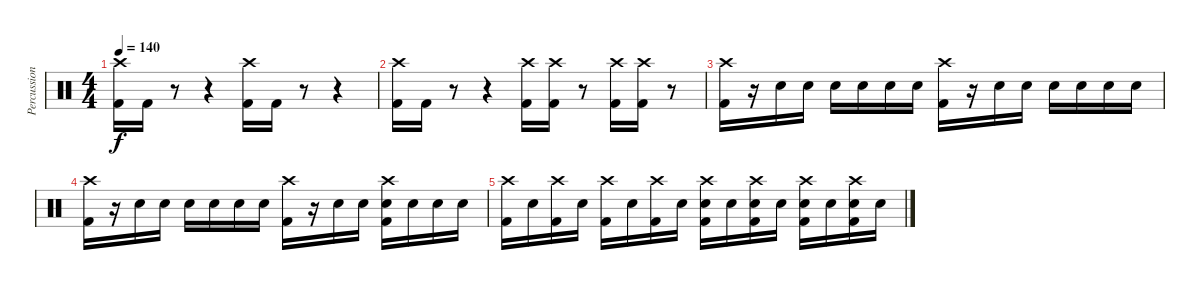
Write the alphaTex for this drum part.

\track ("Percussions" "Percussion") {instrument percussion}
\staff {score}
\articulation defaults
\ts (4 4)
\tempo 140
\clef neutral
\ks c
("Crash high (hit)" "Kick (hit) 2").16{dy f} "Kick (hit) 2".16 r.8 r.4 ("Crash high (hit)" "Kick (hit) 2").16 "Kick (hit) 2".16 r.8 r.4 |
("Crash high (hit)" "Kick (hit) 2").16 "Kick (hit) 2".16 r.8 r.4 ("Crash high (hit)" "Kick (hit) 2").16 ("Crash high (hit)" "Kick (hit) 2").16 r.8 ("Crash high (hit)" "Kick (hit) 2").16 ("Crash high (hit)" "Kick (hit) 2").16 r.8 |
("Crash high (hit)" "Kick (hit) 2").16 r.16 "Electric Snare (hit)".16 "Electric Snare (hit)".16 "Electric Snare (hit)".16 "Electric Snare (hit)".16 "Electric Snare (hit)".16 "Electric Snare (hit)".16 ("Crash high (hit)" "Kick (hit) 2").16 r.16 "Electric Snare (hit)".16 "Electric Snare (hit)".16 "Electric Snare (hit)".16 "Electric Snare (hit)".16 "Electric Snare (hit)".16 "Electric Snare (hit)".16 |
("Crash high (hit)" "Kick (hit) 2").16 r.16 "Electric Snare (hit)".16 "Electric Snare (hit)".16 "Electric Snare (hit)".16 "Electric Snare (hit)".16 "Electric Snare (hit)".16 "Electric Snare (hit)".16 ("Crash high (hit)" "Kick (hit) 2").16 r.16 "Electric Snare (hit)".16 "Electric Snare (hit)".16 ("Crash high (hit)" "Kick (hit) 2" "Electric Snare (hit)").16 "Electric Snare (hit)".16 "Electric Snare (hit)".16 "Electric Snare (hit)".16 |
("Crash high (hit)" "Kick (hit) 2").16 "Electric Snare (hit)".16 ("Crash high (hit)" "Kick (hit) 2").16 "Electric Snare (hit)".16 ("Crash high (hit)" "Kick (hit) 2").16 "Electric Snare (hit)".16 ("Crash high (hit)" "Kick (hit) 2").16 "Electric Snare (hit)".16 ("Crash high (hit)" "Kick (hit) 2" "Electric Snare (hit)").16 "Electric Snare (hit)".16 ("Crash high (hit)" "Kick (hit) 2" "Electric Snare (hit)").16 "Electric Snare (hit)".16 ("Crash high (hit)" "Kick (hit) 2" "Electric Snare (hit)").16 "Electric Snare (hit)".16 ("Crash high (hit)" "Kick (hit) 2" "Electric Snare (hit)").16 "Electric Snare (hit)".16
